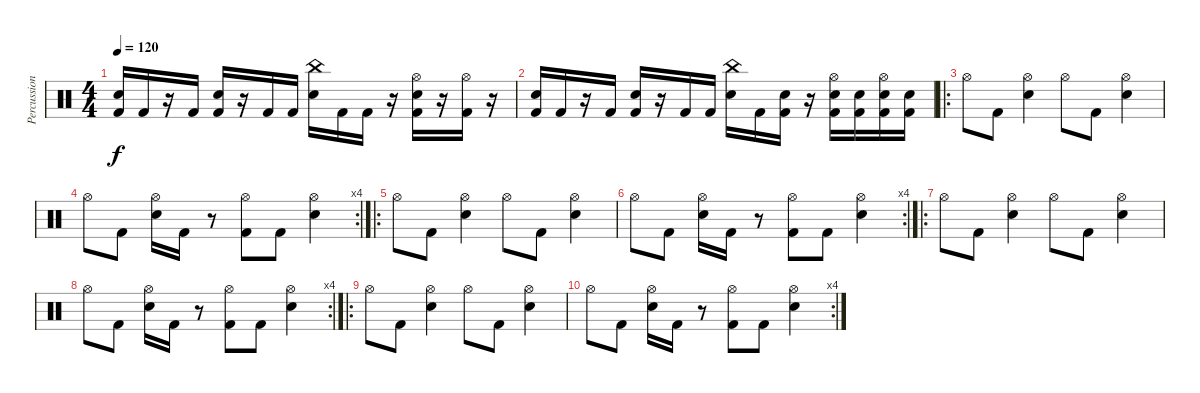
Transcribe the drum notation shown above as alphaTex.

\track ("Percussion" "Percussion") {instrument percussion}
\staff {score}
\articulation defaults
\ts (4 4)
\tempo 120
\clef neutral
\ks c
("Kick (hit) 2" "Electric Snare (hit)").16{dy f} "Kick (hit) 2".16 r.16 "Kick (hit) 2".16 ("Kick (hit) 2" "Electric Snare (hit)").16 r.16 "Kick (hit) 2".16 "Kick (hit) 2".16 ("Electric Snare (hit)" "China (hit)").16 "Kick (hit) 2".16 "Kick (hit) 2".16 r.16 ("Kick (hit) 2" "Electric Snare (hit)" "Hi-Hat (open)").16 r.16 ("Kick (hit) 2" "Hi-Hat (open)").16 r.16 |
("Kick (hit) 2" "Electric Snare (hit)").16 "Kick (hit) 2".16 r.16 "Kick (hit) 2".16 ("Kick (hit) 2" "Electric Snare (hit)").16 r.16 "Kick (hit) 2".16 "Kick (hit) 2".16 ("Electric Snare (hit)" "China (hit)").16 "Kick (hit) 2".16 ("Kick (hit) 2" "Electric Snare (hit)").16 r.16 ("Kick (hit) 2" "Electric Snare (hit)" "Hi-Hat (open)").16 ("Kick (hit) 2" "Electric Snare (hit)").16 ("Kick (hit) 2" "Electric Snare (hit)" "Hi-Hat (open)").16 ("Kick (hit) 2" "Electric Snare (hit)").16 |
\ro "Hi-Hat (open)".8 "Kick (hit) 2".8
("Hi-Hat (open)" "Electric Snare (hit)").4 "Hi-Hat (open)".8 "Kick (hit) 2".8 ("Hi-Hat (open)" "Electric Snare (hit)").4 |
\rc 4 "Hi-Hat (open)".8 "Kick (hit) 2".8
("Hi-Hat (open)" "Electric Snare (hit)").16 "Kick (hit) 2".16 r.8 ("Kick (hit) 2" "Hi-Hat (open)").8 "Kick (hit) 2".8 ("Hi-Hat (open)" "Electric Snare (hit)").4 |
\ro "Hi-Hat (open)".8 "Kick (hit) 2".8
("Hi-Hat (open)" "Electric Snare (hit)").4 "Hi-Hat (open)".8 "Kick (hit) 2".8 ("Hi-Hat (open)" "Electric Snare (hit)").4 |
\rc 4 "Hi-Hat (open)".8 "Kick (hit) 2".8
("Hi-Hat (open)" "Electric Snare (hit)").16 "Kick (hit) 2".16 r.8 ("Kick (hit) 2" "Hi-Hat (open)").8 "Kick (hit) 2".8 ("Hi-Hat (open)" "Electric Snare (hit)").4 |
\ro "Hi-Hat (open)".8 "Kick (hit) 2".8
("Hi-Hat (open)" "Electric Snare (hit)").4 "Hi-Hat (open)".8 "Kick (hit) 2".8 ("Hi-Hat (open)" "Electric Snare (hit)").4 |
\rc 4 "Hi-Hat (open)".8 "Kick (hit) 2".8
("Hi-Hat (open)" "Electric Snare (hit)").16 "Kick (hit) 2".16 r.8 ("Kick (hit) 2" "Hi-Hat (open)").8 "Kick (hit) 2".8 ("Hi-Hat (open)" "Electric Snare (hit)").4 |
\ro "Hi-Hat (open)".8 "Kick (hit) 2".8
("Hi-Hat (open)" "Electric Snare (hit)").4 "Hi-Hat (open)".8 "Kick (hit) 2".8 ("Hi-Hat (open)" "Electric Snare (hit)").4 |
\rc 4 "Hi-Hat (open)".8 "Kick (hit) 2".8
("Hi-Hat (open)" "Electric Snare (hit)").16 "Kick (hit) 2".16 r.8 ("Kick (hit) 2" "Hi-Hat (open)").8 "Kick (hit) 2".8 ("Hi-Hat (open)" "Electric Snare (hit)").4
